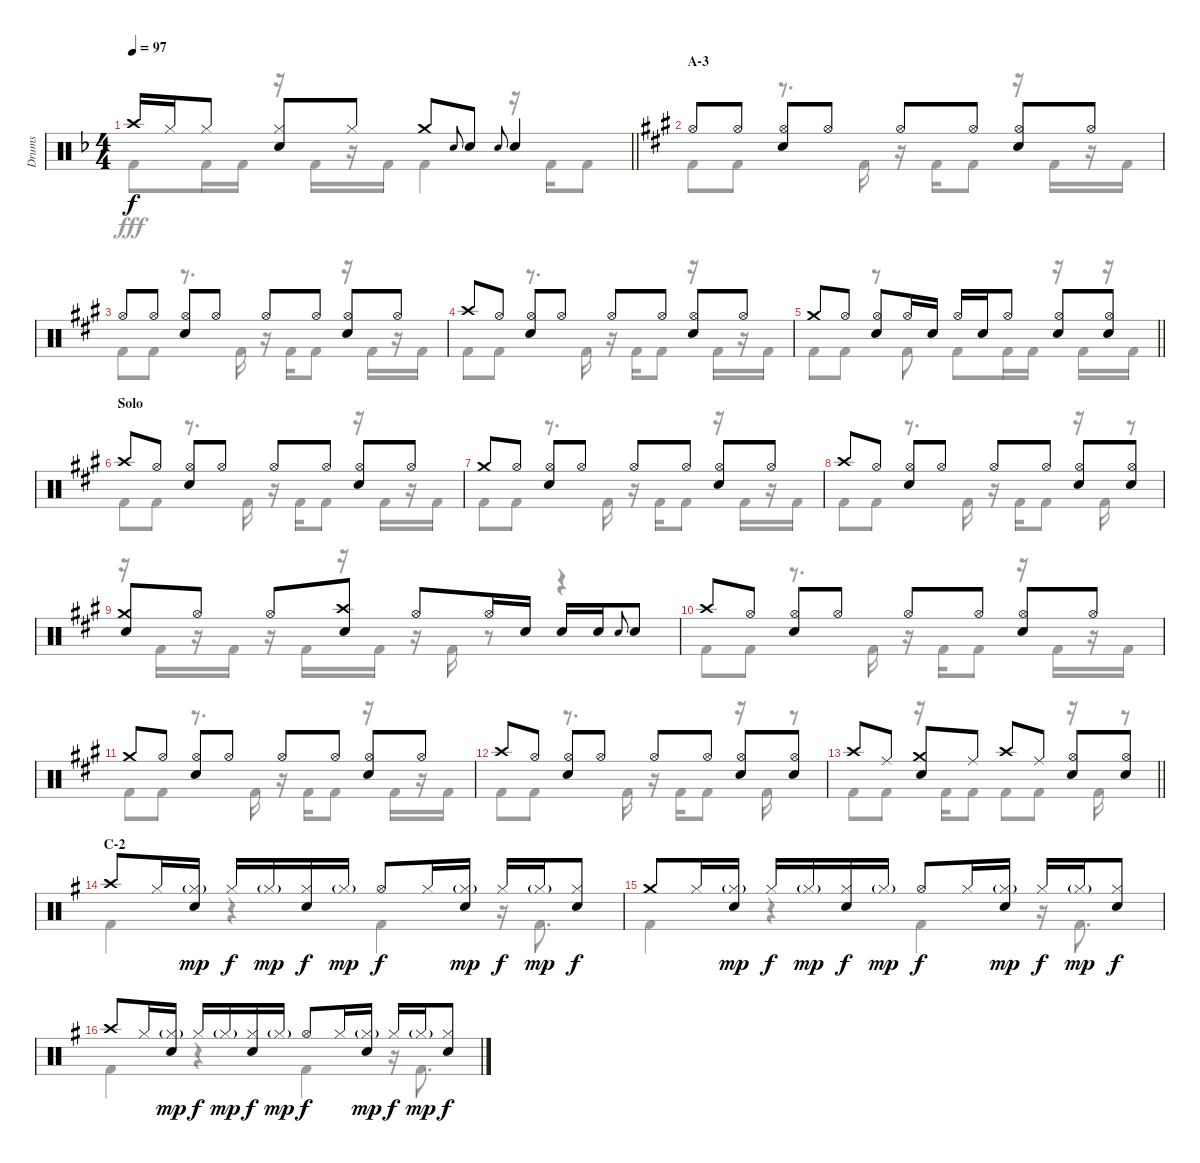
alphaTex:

\track ("Drums" "Drums") {instrument percussion}
\staff {score}
\articulation defaults
\voice
\ts (4 4)
\tempo 97
\clef neutral
\barLineRight lightlight
\ks f "Crash high (hit)".16{dy f} "Hi-Hat (closed)".16 "Hi-Hat (closed)".8
("Hi-Hat (closed)" "Snare (hit) 2").8 "Hi-Hat (closed)".8 "Crash medium (hit)".8 "Snare (hit) 2".8{gr onbeat} "Snare (hit) 2".8 "Snare (hit) 2".8{gr onbeat} "Snare (hit) 2".4 |
\section ("" "A-3")
\ks a "Hi-Hat (open)".8 "Hi-Hat (open)".8
("Hi-Hat (open)" "Snare (hit) 2").8 "Hi-Hat (open)".8 "Hi-Hat (open)".8 "Hi-Hat (open)".8 ("Hi-Hat (open)" "Snare (hit) 2").8 "Hi-Hat (open)".8 |
"Hi-Hat (open)".8 "Hi-Hat (open)".8 ("Hi-Hat (open)" "Snare (hit) 2").8 "Hi-Hat (open)".8 "Hi-Hat (open)".8 "Hi-Hat (open)".8 ("Hi-Hat (open)" "Snare (hit) 2").8 "Hi-Hat (open)".8 |
"Crash high (hit)".8 "Hi-Hat (open)".8 ("Hi-Hat (open)" "Snare (hit) 2").8 "Hi-Hat (open)".8 "Hi-Hat (open)".8 "Hi-Hat (open)".8 ("Hi-Hat (open)" "Snare (hit) 2").8 "Hi-Hat (open)".8 |
\barLineRight lightlight "Crash medium (hit)".8 "Hi-Hat (open)".8
("Hi-Hat (open)" "Snare (hit) 2").8 "Hi-Hat (open)".16 "Snare (hit) 2".16 "Hi-Hat (open)".16 "Snare (hit) 2".16 "Hi-Hat (open)".8 ("Hi-Hat (open)" "Snare (hit) 2").8 ("Hi-Hat (open)" "Snare (hit) 2").8 |
\section ("" "Solo")
"Crash high (hit)".8 "Hi-Hat (open)".8 ("Hi-Hat (open)" "Snare (hit) 2").8 "Hi-Hat (open)".8 "Hi-Hat (open)".8 "Hi-Hat (open)".8 ("Hi-Hat (open)" "Snare (hit) 2").8 "Hi-Hat (open)".8 |
"Crash medium (hit)".8 "Hi-Hat (open)".8 ("Hi-Hat (open)" "Snare (hit) 2").8 "Hi-Hat (open)".8 "Hi-Hat (open)".8 "Hi-Hat (open)".8 ("Hi-Hat (open)" "Snare (hit) 2").8 "Hi-Hat (open)".8 |
"Crash high (hit)".8 "Hi-Hat (open)".8 ("Hi-Hat (open)" "Snare (hit) 2").8 "Hi-Hat (open)".8 "Hi-Hat (open)".8 "Hi-Hat (open)".8 ("Hi-Hat (open)" "Snare (hit) 2").8 ("Hi-Hat (open)" "Snare (hit) 2").8 |
("Crash medium (hit)" "Snare (hit) 2").8 "Hi-Hat (open)".8 "Hi-Hat (open)".8 ("Crash high (hit)" "Snare (hit) 2").8 "Hi-Hat (open)".8 "Hi-Hat (open)".16 "Snare (hit) 2".16 "Snare (hit) 2".16 "Snare (hit) 2".16 "Snare (hit) 2".8{gr onbeat} "Snare (hit) 2".8 |
"Crash high (hit)".8 "Hi-Hat (open)".8 ("Hi-Hat (open)" "Snare (hit) 2").8 "Hi-Hat (open)".8 "Hi-Hat (open)".8 "Hi-Hat (open)".8 ("Hi-Hat (open)" "Snare (hit) 2").8 "Hi-Hat (open)".8 |
"Crash medium (hit)".8 "Hi-Hat (open)".8 ("Hi-Hat (open)" "Snare (hit) 2").8 "Hi-Hat (open)".8 "Hi-Hat (open)".8 "Hi-Hat (open)".8 ("Hi-Hat (open)" "Snare (hit) 2").8 "Hi-Hat (open)".8 |
"Crash high (hit)".8 "Hi-Hat (open)".8 ("Hi-Hat (open)" "Snare (hit) 2").8 "Hi-Hat (open)".8 "Hi-Hat (open)".8 "Hi-Hat (open)".8 ("Hi-Hat (open)" "Snare (hit) 2").8 ("Hi-Hat (open)" "Snare (hit) 2").8 |
\barLineRight lightlight "Crash high (hit)".8 "Ride (middle)".8
("Crash medium (hit)" "Snare (hit) 2").8 "Ride (middle)".8 "Crash high (hit)".8 "Ride (middle)".8 ("Hi-Hat (open)" "Snare (hit) 2").8 ("Hi-Hat (open)" "Snare (hit) 2").8 |
\section ("" "C-2")
\ks eminor "Crash high (hit)".8 "Hi-Hat (closed)".16
("Hi-Hat (closed)"{g} "Snare (hit) 2").16{dy mp} "Hi-Hat (closed)".16{dy f} "Hi-Hat (closed)"{g}.16{dy mp} ("Hi-Hat (closed)" "Snare (hit) 2").16{dy f} "Hi-Hat (closed)"{g}.16{dy mp} "Hi-Hat (open)".8{dy f} "Hi-Hat (closed)".16 ("Hi-Hat (closed)"{g} "Snare (hit) 2").16{dy mp} "Hi-Hat (closed)".16{dy f} "Hi-Hat (closed)"{g}.16{dy mp} ("Hi-Hat (closed)" "Snare (hit) 2").8{dy f} |
"Crash medium (hit)".8 "Hi-Hat (closed)".16 ("Hi-Hat (closed)"{g} "Snare (hit) 2").16{dy mp} "Hi-Hat (closed)".16{dy f} "Hi-Hat (closed)"{g}.16{dy mp} ("Hi-Hat (closed)" "Snare (hit) 2").16{dy f} "Hi-Hat (closed)"{g}.16{dy mp} "Hi-Hat (open)".8{dy f} "Hi-Hat (closed)".16 ("Hi-Hat (closed)"{g} "Snare (hit) 2").16{dy mp} "Hi-Hat (closed)".16{dy f} "Hi-Hat (closed)"{g}.16{dy mp} ("Hi-Hat (closed)" "Snare (hit) 2").8{dy f} |
"Crash high (hit)".8 "Hi-Hat (closed)".16 ("Hi-Hat (closed)"{g} "Snare (hit) 2").16{dy mp} "Hi-Hat (closed)".16{dy f} "Hi-Hat (closed)"{g}.16{dy mp} ("Hi-Hat (closed)" "Snare (hit) 2").16{dy f} "Hi-Hat (closed)"{g}.16{dy mp} "Hi-Hat (open)".8{dy f} "Hi-Hat (closed)".16 ("Hi-Hat (closed)"{g} "Snare (hit) 2").16{dy mp} "Hi-Hat (closed)".16{dy f} "Hi-Hat (closed)"{g}.16{dy mp} ("Hi-Hat (closed)" "Snare (hit) 2").8{dy f}
\voice
\clef neutral
\ottava regular
\simile none
\barLineRight lightlight
\ks f "Kick (hit) 2".8{dy fff} "Kick (hit) 2".16 "Kick (hit) 2".16
r.16 "Kick (hit) 2".16 r.16 "Kick (hit) 2".16 "Kick (hit) 2".4 r.16 "Kick (hit) 2".16 "Kick (hit) 2".8 |
\ks a "Kick (hit) 2".8 "Kick (hit) 2".8
r.8{d} "Kick (hit) 2".16 r.16 "Kick (hit) 2".16 "Kick (hit) 2".8 r.16 "Kick (hit) 2".16 r.16 "Kick (hit) 2".16 |
"Kick (hit) 2".8 "Kick (hit) 2".8 r.8{d} "Kick (hit) 2".16 r.16 "Kick (hit) 2".16 "Kick (hit) 2".8 r.16 "Kick (hit) 2".16 r.16 "Kick (hit) 2".16 |
"Kick (hit) 2".8 "Kick (hit) 2".8 r.8{d} "Kick (hit) 2".16 r.16 "Kick (hit) 2".16 "Kick (hit) 2".8 r.16 "Kick (hit) 2".16 r.16 "Kick (hit) 2".16 |
\barLineRight lightlight "Kick (hit) 2".8 "Kick (hit) 2".8
r.8 "Kick (hit) 2".8 "Kick (hit) 2".8 "Kick (hit) 2".16 "Kick (hit) 2".16 r.16 "Kick (hit) 2".16 r.16 "Kick (hit) 2".16 |
"Kick (hit) 2".8 "Kick (hit) 2".8 r.8{d} "Kick (hit) 2".16 r.16 "Kick (hit) 2".16 "Kick (hit) 2".8 r.16 "Kick (hit) 2".16 r.16 "Kick (hit) 2".16 |
"Kick (hit) 2".8 "Kick (hit) 2".8 r.8{d} "Kick (hit) 2".16 r.16 "Kick (hit) 2".16 "Kick (hit) 2".8 r.16 "Kick (hit) 2".16 r.16 "Kick (hit) 2".16 |
"Kick (hit) 2".8 "Kick (hit) 2".8 r.8{d} "Kick (hit) 2".16 r.16 "Kick (hit) 2".16 "Kick (hit) 2".8 r.16 "Kick (hit) 2".16 r.8 |
r.16 "Kick (hit) 2".16 r.16 "Kick (hit) 2".16 r.16 "Kick (hit) 2".16 r.16 "Kick (hit) 2".16 r.16 "Kick (hit) 2".16 r.8 r.4 |
"Kick (hit) 2".8 "Kick (hit) 2".8 r.8{d} "Kick (hit) 2".16 r.16 "Kick (hit) 2".16 "Kick (hit) 2".8 r.16 "Kick (hit) 2".16 r.16 "Kick (hit) 2".16 |
"Kick (hit) 2".8 "Kick (hit) 2".8 r.8{d} "Kick (hit) 2".16 r.16 "Kick (hit) 2".16 "Kick (hit) 2".8 r.16 "Kick (hit) 2".16 r.16 "Kick (hit) 2".16 |
"Kick (hit) 2".8 "Kick (hit) 2".8 r.8{d} "Kick (hit) 2".16 r.16 "Kick (hit) 2".16 "Kick (hit) 2".8 r.16 "Kick (hit) 2".16 r.8 |
\barLineRight lightlight "Kick (hit) 2".8 "Kick (hit) 2".8
r.16 "Kick (hit) 2".16 "Kick (hit) 2".8 "Kick (hit) 2".8 "Kick (hit) 2".8 r.16 "Kick (hit) 2".16 r.8 |
\ks eminor "Kick (hit) 2".4
r.4 "Kick (hit) 2".4 r.16 "Kick (hit) 2".8{d} |
"Kick (hit) 2".4 r.4 "Kick (hit) 2".4 r.16 "Kick (hit) 2".8{d} |
"Kick (hit) 2".4 r.4 "Kick (hit) 2".4 r.16 "Kick (hit) 2".8{d}
